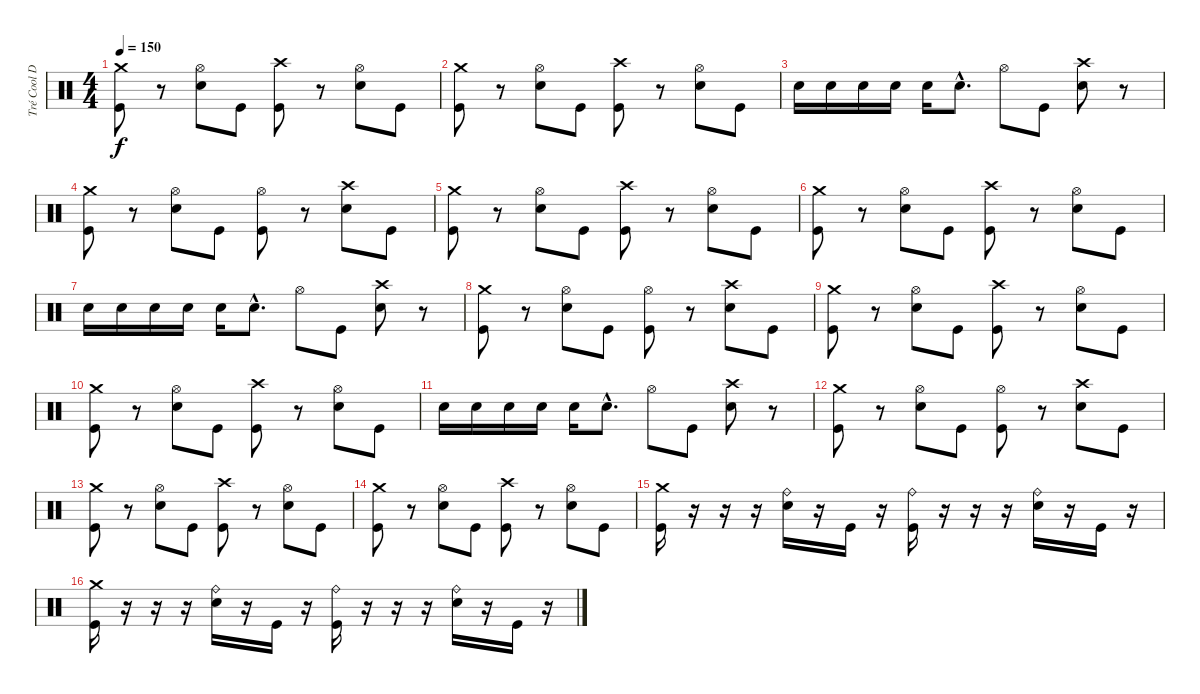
\track ("Tré Cool Drums" "Tré Cool D") {instrument percussion}
\staff {score}
\articulation defaults
\ts (4 4)
\tempo 150
\clef neutral
\ks c
("Crash medium (hit)" "Kick (hit)").8{dy f} r.8 ("Hi-Hat (open)" "Electric Snare (hit)").8 "Kick (hit)".8 ("Crash high (hit)" "Kick (hit)").8 r.8 ("Hi-Hat (open)" "Electric Snare (hit)").8 "Kick (hit)".8 |
("Crash medium (hit)" "Kick (hit)").8 r.8 ("Hi-Hat (open)" "Electric Snare (hit)").8 "Kick (hit)".8 ("Crash high (hit)" "Kick (hit)").8 r.8 ("Hi-Hat (open)" "Electric Snare (hit)").8 "Kick (hit)".8 |
"Electric Snare (hit)".16 "Electric Snare (hit)".16 "Electric Snare (hit)".16 "Electric Snare (hit)".16 "Electric Snare (hit)".16 "Electric Snare (hit)"{hac}.8{d} "Hi-Hat (open)".8 "Kick (hit)".8 ("Crash high (hit)" "Electric Snare (hit)").8 r.8 |
("Crash medium (hit)" "Kick (hit)").8 r.8 ("Hi-Hat (open)" "Electric Snare (hit)").8 "Kick (hit)".8 ("Hi-Hat (open)" "Kick (hit)").8 r.8 ("Crash high (hit)" "Electric Snare (hit)").8 "Kick (hit)".8 |
("Crash medium (hit)" "Kick (hit)").8 r.8 ("Hi-Hat (open)" "Electric Snare (hit)").8 "Kick (hit)".8 ("Crash high (hit)" "Kick (hit)").8 r.8 ("Hi-Hat (open)" "Electric Snare (hit)").8 "Kick (hit)".8 |
("Crash medium (hit)" "Kick (hit)").8 r.8 ("Hi-Hat (open)" "Electric Snare (hit)").8 "Kick (hit)".8 ("Crash high (hit)" "Kick (hit)").8 r.8 ("Hi-Hat (open)" "Electric Snare (hit)").8 "Kick (hit)".8 |
"Electric Snare (hit)".16 "Electric Snare (hit)".16 "Electric Snare (hit)".16 "Electric Snare (hit)".16 "Electric Snare (hit)".16 "Electric Snare (hit)"{hac}.8{d} "Hi-Hat (open)".8 "Kick (hit)".8 ("Crash high (hit)" "Electric Snare (hit)").8 r.8 |
("Crash medium (hit)" "Kick (hit)").8 r.8 ("Hi-Hat (open)" "Electric Snare (hit)").8 "Kick (hit)".8 ("Hi-Hat (open)" "Kick (hit)").8 r.8 ("Crash high (hit)" "Electric Snare (hit)").8 "Kick (hit)".8 |
("Crash medium (hit)" "Kick (hit)").8 r.8 ("Hi-Hat (open)" "Electric Snare (hit)").8 "Kick (hit)".8 ("Crash high (hit)" "Kick (hit)").8 r.8 ("Hi-Hat (open)" "Electric Snare (hit)").8 "Kick (hit)".8 |
("Crash medium (hit)" "Kick (hit)").8 r.8 ("Hi-Hat (open)" "Electric Snare (hit)").8 "Kick (hit)".8 ("Crash high (hit)" "Kick (hit)").8 r.8 ("Hi-Hat (open)" "Electric Snare (hit)").8 "Kick (hit)".8 |
"Electric Snare (hit)".16 "Electric Snare (hit)".16 "Electric Snare (hit)".16 "Electric Snare (hit)".16 "Electric Snare (hit)".16 "Electric Snare (hit)"{hac}.8{d} "Hi-Hat (open)".8 "Kick (hit)".8 ("Crash high (hit)" "Electric Snare (hit)").8 r.8 |
("Crash medium (hit)" "Kick (hit)").8 r.8 ("Hi-Hat (open)" "Electric Snare (hit)").8 "Kick (hit)".8 ("Hi-Hat (open)" "Kick (hit)").8 r.8 ("Crash high (hit)" "Electric Snare (hit)").8 "Kick (hit)".8 |
("Crash medium (hit)" "Kick (hit)").8 r.8 ("Hi-Hat (open)" "Electric Snare (hit)").8 "Kick (hit)".8 ("Crash high (hit)" "Kick (hit)").8 r.8 ("Hi-Hat (open)" "Electric Snare (hit)").8 "Kick (hit)".8 |
("Crash medium (hit)" "Kick (hit)").8 r.8 ("Hi-Hat (open)" "Electric Snare (hit)").8 "Kick (hit)".8 ("Crash high (hit)" "Kick (hit)").8 r.8 ("Hi-Hat (open)" "Electric Snare (hit)").8 "Kick (hit)".8 |
("Crash medium (hit)" "Kick (hit)").16 r.16 r.16 r.16 ("Ride (bell)" "Electric Snare (hit)").16 r.16 "Kick (hit)".16 r.16 ("Ride (bell)" "Kick (hit)").16 r.16 r.16 r.16 ("Ride (bell)" "Electric Snare (hit)").16 r.16 "Kick (hit)".16 r.16 |
("Crash medium (hit)" "Kick (hit)").16 r.16 r.16 r.16 ("Ride (bell)" "Electric Snare (hit)").16 r.16 "Kick (hit)".16 r.16 ("Ride (bell)" "Kick (hit)").16 r.16 r.16 r.16 ("Ride (bell)" "Electric Snare (hit)").16 r.16 "Kick (hit)".16 r.16
